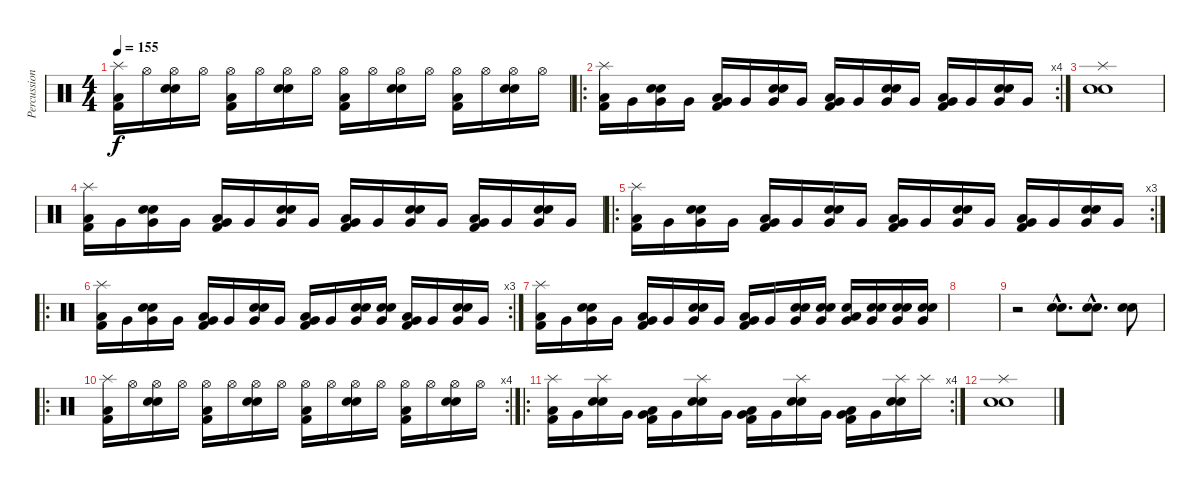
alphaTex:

\track ("Percussions" "Percussion") {instrument percussion}
\staff {score}
\articulation defaults
\ts (4 4)
\tempo 155
\clef neutral
\ks c
("Splash (hit)" "Kick (hit) 2" "Low Floor Tom (hit)").16{dy f} "Hi-Hat (open)".16 ("Hi-Hat (open)" "Snare (hit) 2" "Electric Snare (hit)").16 "Hi-Hat (open)".16 ("Hi-Hat (open)" "Kick (hit) 2" "Low Floor Tom (hit)").16 "Hi-Hat (open)".16 ("Hi-Hat (open)" "Snare (hit) 2" "Electric Snare (hit)").16 "Hi-Hat (open)".16 ("Hi-Hat (open)" "Kick (hit) 2" "Low Floor Tom (hit)").16 "Hi-Hat (open)".16 ("Hi-Hat (open)" "Snare (hit) 2" "Electric Snare (hit)").16 "Hi-Hat (open)".16 ("Hi-Hat (open)" "Kick (hit) 2" "Low Floor Tom (hit)").16 "Hi-Hat (open)".16 ("Hi-Hat (open)" "Snare (hit) 2" "Electric Snare (hit)").16 "Hi-Hat (open)".16 |
\ro
\rc 4
("Splash (hit)" "Kick (hit) 2" "Low Floor Tom (hit)").16 "Very Low Tom (hit)".16 ("Very Low Tom (hit)" "Electric Snare (hit)" "Snare (hit) 2").16 "Very Low Tom (hit)".16 ("Very Low Tom (hit)" "Low Floor Tom (hit)" "Kick (hit) 2").16 "Very Low Tom (hit)".16 ("Very Low Tom (hit)" "Electric Snare (hit)" "Snare (hit) 2").16 "Very Low Tom (hit)".16 ("Very Low Tom (hit)" "Kick (hit) 2" "Low Floor Tom (hit)").16 "Very Low Tom (hit)".16 ("Very Low Tom (hit)" "Electric Snare (hit)" "Snare (hit) 2").16 "Very Low Tom (hit)".16 ("Very Low Tom (hit)" "Kick (hit) 2" "Low Floor Tom (hit)").16 "Very Low Tom (hit)".16 ("Very Low Tom (hit)" "Electric Snare (hit)" "Snare (hit) 2").16 "Very Low Tom (hit)".16 |
("Splash (hit)" "Electric Snare (hit)" "Snare (hit) 2").1 |
("Splash (hit)" "Kick (hit) 2" "Low Floor Tom (hit)").16 "Very Low Tom (hit)".16 ("Very Low Tom (hit)" "Electric Snare (hit)" "Snare (hit) 2").16 "Very Low Tom (hit)".16 ("Very Low Tom (hit)" "Low Floor Tom (hit)" "Kick (hit) 2").16 "Very Low Tom (hit)".16 ("Very Low Tom (hit)" "Electric Snare (hit)" "Snare (hit) 2").16 "Very Low Tom (hit)".16 ("Very Low Tom (hit)" "Kick (hit) 2" "Low Floor Tom (hit)").16 "Very Low Tom (hit)".16 ("Very Low Tom (hit)" "Electric Snare (hit)" "Snare (hit) 2").16 "Very Low Tom (hit)".16 ("Very Low Tom (hit)" "Kick (hit) 2" "Low Floor Tom (hit)").16 "Very Low Tom (hit)".16 ("Very Low Tom (hit)" "Electric Snare (hit)" "Snare (hit) 2").16 "Very Low Tom (hit)".16 |
\ro
\rc 3
("Splash (hit)" "Kick (hit) 2" "Low Floor Tom (hit)").16 "Very Low Tom (hit)".16 ("Very Low Tom (hit)" "Electric Snare (hit)" "Snare (hit) 2").16 "Very Low Tom (hit)".16 ("Very Low Tom (hit)" "Low Floor Tom (hit)" "Kick (hit) 2").16 "Very Low Tom (hit)".16 ("Very Low Tom (hit)" "Electric Snare (hit)" "Snare (hit) 2").16 "Very Low Tom (hit)".16 ("Very Low Tom (hit)" "Kick (hit) 2" "Low Floor Tom (hit)").16 "Very Low Tom (hit)".16 ("Very Low Tom (hit)" "Electric Snare (hit)" "Snare (hit) 2").16 "Very Low Tom (hit)".16 ("Very Low Tom (hit)" "Kick (hit) 2" "Low Floor Tom (hit)").16 "Very Low Tom (hit)".16 ("Very Low Tom (hit)" "Electric Snare (hit)" "Snare (hit) 2").16 "Very Low Tom (hit)".16 |
\ro
\rc 3
("Splash (hit)" "Kick (hit) 2" "Low Floor Tom (hit)").16 "Very Low Tom (hit)".16 ("Very Low Tom (hit)" "Electric Snare (hit)" "Snare (hit) 2").16 "Very Low Tom (hit)".16 ("Very Low Tom (hit)" "Low Floor Tom (hit)" "Kick (hit) 2").16 "Very Low Tom (hit)".16 ("Very Low Tom (hit)" "Electric Snare (hit)" "Snare (hit) 2").16 "Very Low Tom (hit)".16 ("Very Low Tom (hit)" "Kick (hit) 2" "Low Floor Tom (hit)").16 "Very Low Tom (hit)".16 ("Very Low Tom (hit)" "Electric Snare (hit)" "Snare (hit) 2").16 ("Very Low Tom (hit)" "Electric Snare (hit)" "Snare (hit) 2").16 ("Very Low Tom (hit)" "Kick (hit) 2" "Low Floor Tom (hit)").16 "Very Low Tom (hit)".16 ("Very Low Tom (hit)" "Electric Snare (hit)" "Snare (hit) 2").16 "Very Low Tom (hit)".16 |
("Splash (hit)" "Kick (hit) 2" "Low Floor Tom (hit)").16 "Very Low Tom (hit)".16 ("Very Low Tom (hit)" "Electric Snare (hit)" "Snare (hit) 2").16 "Very Low Tom (hit)".16 ("Very Low Tom (hit)" "Low Floor Tom (hit)" "Kick (hit) 2").16 "Very Low Tom (hit)".16 ("Very Low Tom (hit)" "Electric Snare (hit)" "Snare (hit) 2").16 "Very Low Tom (hit)".16 ("Very Low Tom (hit)" "Kick (hit) 2" "Low Floor Tom (hit)").16 "Very Low Tom (hit)".16 ("Very Low Tom (hit)" "Electric Snare (hit)" "Snare (hit) 2").16 ("Very Low Tom (hit)" "Electric Snare (hit)" "Snare (hit) 2").16 ("Very Low Tom (hit)" "Electric Snare (hit)" "Low Floor Tom (hit)").16 ("Very Low Tom (hit)" "Electric Snare (hit)" "Snare (hit) 2").16 ("Very Low Tom (hit)" "Electric Snare (hit)" "Snare (hit) 2").16 ("Very Low Tom (hit)" "Electric Snare (hit)" "Snare (hit) 2").16 |
|
r.2 ("Snare (hit) 2"{hac} "Electric Snare (hit)"{hac}).8{d} ("Snare (hit) 2"{hac} "Electric Snare (hit)"{hac}).8{d} ("Snare (hit) 2" "Electric Snare (hit)").8 |
\ro
\rc 4
("Splash (hit)" "Kick (hit) 2" "Low Floor Tom (hit)").16 "Hi-Hat (open)".16 ("Hi-Hat (open)" "Snare (hit) 2" "Electric Snare (hit)").16 "Hi-Hat (open)".16 ("Hi-Hat (open)" "Kick (hit) 2" "Low Floor Tom (hit)").16 "Hi-Hat (open)".16 ("Hi-Hat (open)" "Snare (hit) 2" "Electric Snare (hit)").16 "Hi-Hat (open)".16 ("Hi-Hat (open)" "Kick (hit) 2" "Low Floor Tom (hit)").16 "Hi-Hat (open)".16 ("Hi-Hat (open)" "Snare (hit) 2" "Electric Snare (hit)").16 "Hi-Hat (open)".16 ("Hi-Hat (open)" "Kick (hit) 2" "Low Floor Tom (hit)").16 "Hi-Hat (open)".16 ("Hi-Hat (open)" "Snare (hit) 2" "Electric Snare (hit)").16 "Hi-Hat (open)".16 |
\ro
\rc 4
("Splash (hit)" "Kick (hit) 2" "Low Floor Tom (hit)").16 "Very Low Tom (hit)".16 ("Splash (hit)" "Electric Snare (hit)" "Snare (hit) 2").16 "Very Low Tom (hit)".16 ("Very Low Tom (hit)" "Low Floor Tom (hit)" "Kick (hit) 2").16 "Very Low Tom (hit)".16 ("Splash (hit)" "Electric Snare (hit)" "Snare (hit) 2").16 "Very Low Tom (hit)".16 ("Very Low Tom (hit)" "Kick (hit) 2" "Low Floor Tom (hit)").16 "Very Low Tom (hit)".16 ("Splash (hit)" "Electric Snare (hit)" "Snare (hit) 2").16 "Very Low Tom (hit)".16 ("Very Low Tom (hit)" "Kick (hit) 2" "Low Floor Tom (hit)").16 "Very Low Tom (hit)".16 ("Splash (hit)" "Electric Snare (hit)" "Snare (hit) 2").16 "Splash (hit)".16 |
("Splash (hit)" "Snare (hit) 2" "Electric Snare (hit)").1
